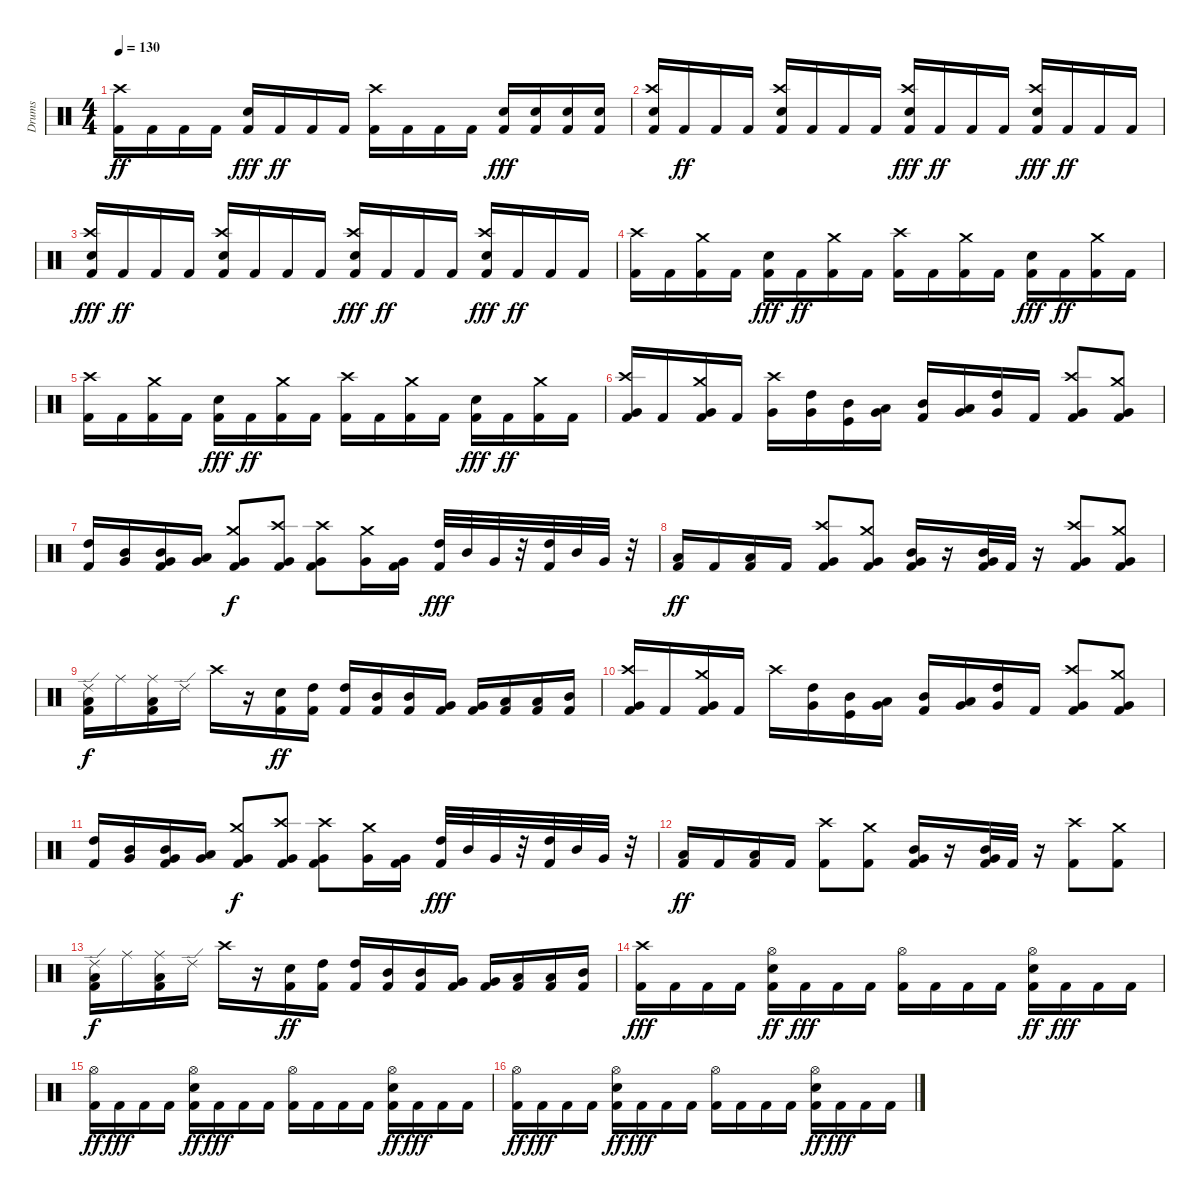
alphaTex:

\track ("Drums" "Drums") {instrument percussion}
\staff {score}
\articulation defaults
\ts (4 4)
\tempo 130
\clef neutral
\ks c
("Kick (hit) 2" "Crash high (hit)").16{dy ff} "Kick (hit) 2".16 "Kick (hit) 2".16 "Kick (hit) 2".16 ("Kick (hit) 2" "Snare (hit) 2").16{dy fff} "Kick (hit) 2".16{dy ff} "Kick (hit) 2".16 "Kick (hit) 2".16 ("Kick (hit) 2" "Crash high (hit)").16 "Kick (hit) 2".16 "Kick (hit) 2".16 "Kick (hit) 2".16 ("Kick (hit) 2" "Snare (hit) 2").16{dy fff} ("Kick (hit) 2" "Snare (hit) 2").16 ("Kick (hit) 2" "Snare (hit) 2").16 ("Kick (hit) 2" "Snare (hit) 2").16 |
("Kick (hit) 2" "Crash high (hit)" "Snare (hit) 2").16 "Kick (hit) 2".16{dy ff} "Kick (hit) 2".16 "Kick (hit) 2".16 ("Kick (hit) 2" "Snare (hit) 2" "Crash high (hit)").16 "Kick (hit) 2".16 "Kick (hit) 2".16 "Kick (hit) 2".16 ("Kick (hit) 2" "Snare (hit) 2" "Crash high (hit)").16{dy fff} "Kick (hit) 2".16{dy ff} "Kick (hit) 2".16 "Kick (hit) 2".16 ("Kick (hit) 2" "Snare (hit) 2" "Crash high (hit)").16{dy fff} "Kick (hit) 2".16{dy ff} "Kick (hit) 2".16 "Kick (hit) 2".16 |
("Kick (hit) 2" "Crash high (hit)" "Snare (hit) 2").16{dy fff} "Kick (hit) 2".16{dy ff} "Kick (hit) 2".16 "Kick (hit) 2".16 ("Kick (hit) 2" "Snare (hit) 2" "Crash high (hit)").16 "Kick (hit) 2".16 "Kick (hit) 2".16 "Kick (hit) 2".16 ("Kick (hit) 2" "Snare (hit) 2" "Crash high (hit)").16{dy fff} "Kick (hit) 2".16{dy ff} "Kick (hit) 2".16 "Kick (hit) 2".16 ("Kick (hit) 2" "Snare (hit) 2" "Crash high (hit)").16{dy fff} "Kick (hit) 2".16{dy ff} "Kick (hit) 2".16 "Kick (hit) 2".16 |
("Kick (hit) 2" "Crash high (hit)").16 "Kick (hit) 2".16 ("Kick (hit) 2" "Crash medium (hit)").16 "Kick (hit) 2".16 ("Kick (hit) 2" "Snare (hit) 2").16{dy fff} "Kick (hit) 2".16{dy ff} ("Kick (hit) 2" "Crash medium (hit)").16 "Kick (hit) 2".16 ("Kick (hit) 2" "Crash high (hit)").16 "Kick (hit) 2".16 ("Kick (hit) 2" "Crash medium (hit)").16 "Kick (hit) 2".16 ("Kick (hit) 2" "Snare (hit) 2").16{dy fff} "Kick (hit) 2".16{dy ff} ("Kick (hit) 2" "Crash medium (hit)").16 "Kick (hit) 2".16 |
("Kick (hit) 2" "Crash high (hit)").16 "Kick (hit) 2".16 ("Kick (hit) 2" "Crash medium (hit)").16 "Kick (hit) 2".16 ("Kick (hit) 2" "Snare (hit) 2").16{dy fff} "Kick (hit) 2".16{dy ff} ("Kick (hit) 2" "Crash medium (hit)").16 "Kick (hit) 2".16 ("Kick (hit) 2" "Crash high (hit)").16 "Kick (hit) 2".16 ("Kick (hit) 2" "Crash medium (hit)").16 "Kick (hit) 2".16 ("Kick (hit) 2" "Snare (hit) 2").16{dy fff} "Kick (hit) 2".16{dy ff} ("Kick (hit) 2" "Crash medium (hit)").16 "Kick (hit) 2".16 |
("Kick (hit) 2" "Crash high (hit)" "Very Low Tom (hit)").16 "Kick (hit) 2".16 ("Kick (hit) 2" "Crash medium (hit)" "Very Low Tom (hit)").16 "Kick (hit) 2".16 ("Crash high (hit)" "Very Low Tom (hit)").16 ("Very Low Tom (hit)" "High Tom (hit)").16 ("Kick (hit)" "Mid Tom (hit)").16 ("Very Low Tom (hit)" "Low Tom (hit)").16 ("Kick (hit) 2" "Mid Tom (hit)").16 ("Very Low Tom (hit)" "Low Tom (hit)").16 ("Very Low Tom (hit)" "High Tom (hit)").16 "Kick (hit) 2".16 ("Crash high (hit)" "Kick (hit) 2" "Very Low Tom (hit)").8 ("Crash medium (hit)" "Kick (hit) 2" "Very Low Tom (hit)").8 |
("Kick (hit) 2" "High Tom (hit)").16 ("Mid Tom (hit)" "Very Low Tom (hit)").16 ("Kick (hit) 2" "Mid Tom (hit)" "Very Low Tom (hit)").16 ("Low Tom (hit)" "Very Low Tom (hit)").16 ("Crash medium (hit)" "Kick (hit) 2" "Very Low Tom (hit)").8{dy f} ("Crash high (hit)" "Kick (hit) 2" "Very Low Tom (hit)").8 ("Crash high (hit)" "Kick (hit) 2" "Very Low Tom (hit)").8 ("Very Low Tom (hit)" "Crash medium (hit)").16 ("Kick (hit) 2" "Very Low Tom (hit)").16 ("High Tom (hit)" "Kick (hit) 2").32{dy fff} "Mid Tom (hit)".32 "Very Low Tom (hit)".32 r.32 ("High Tom (hit)" "Kick (hit) 2").32 "Mid Tom (hit)".32 "Very Low Tom (hit)".32 r.32 |
("Kick (hit) 2" "Low Tom (hit)").16{dy ff} "Kick (hit) 2".16 ("Kick (hit) 2" "Low Tom (hit)").16 "Kick (hit) 2".16 ("Crash high (hit)" "Kick (hit) 2" "Very Low Tom (hit)").8 ("Crash medium (hit)" "Kick (hit) 2" "Very Low Tom (hit)").8 ("Kick (hit) 2" "Very Low Tom (hit)" "Mid Tom (hit)").16 r.16 ("Kick (hit) 2" "Very Low Tom (hit)" "Mid Tom (hit)").32 "Kick (hit) 2".32 r.16 ("Crash high (hit)" "Kick (hit) 2" "Very Low Tom (hit)").8 ("Crash medium (hit)" "Kick (hit) 2" "Very Low Tom (hit)").8 |
("Ride (edge) 2" "Kick (hit) 2" "Low Tom (hit)").16{dy f} "Ride (middle)".16 ("Ride (middle)" "Kick (hit) 2" "Low Tom (hit)").16 "Ride (edge) 2".16 "Crash high (hit)".16 r.16 ("Snare (hit) 2" "Kick (hit) 2").16{dy ff} ("High Tom (hit)" "Kick (hit) 2").16 ("High Tom (hit)" "Kick (hit) 2").16 ("Mid Tom (hit)" "Kick (hit) 2").16 ("Mid Tom (hit)" "Kick (hit) 2").16 ("Very Low Tom (hit)" "Kick (hit) 2").16 ("Very Low Tom (hit)" "Kick (hit) 2").16 ("Low Tom (hit)" "Kick (hit) 2").16 ("Low Tom (hit)" "Kick (hit) 2").16 ("Mid Tom (hit)" "Kick (hit) 2").16 |
("Kick (hit) 2" "Crash high (hit)" "Very Low Tom (hit)").16 "Kick (hit) 2".16 ("Kick (hit) 2" "Crash medium (hit)" "Very Low Tom (hit)").16 "Kick (hit) 2".16 "Crash high (hit)".16 ("Very Low Tom (hit)" "High Tom (hit)").16 ("Kick (hit)" "Mid Tom (hit)").16 ("Very Low Tom (hit)" "Low Tom (hit)").16 ("Kick (hit) 2" "Mid Tom (hit)").16 ("Very Low Tom (hit)" "Low Tom (hit)").16 ("Very Low Tom (hit)" "High Tom (hit)").16 "Kick (hit) 2".16 ("Crash high (hit)" "Kick (hit) 2" "Very Low Tom (hit)").8 ("Crash medium (hit)" "Kick (hit) 2" "Very Low Tom (hit)").8 |
("Kick (hit) 2" "High Tom (hit)").16 ("Mid Tom (hit)" "Very Low Tom (hit)").16 ("Kick (hit) 2" "Mid Tom (hit)" "Very Low Tom (hit)").16 ("Low Tom (hit)" "Very Low Tom (hit)").16 ("Crash medium (hit)" "Kick (hit) 2" "Very Low Tom (hit)").8{dy f} ("Crash high (hit)" "Kick (hit) 2" "Very Low Tom (hit)").8 ("Crash high (hit)" "Kick (hit) 2" "Very Low Tom (hit)").8 ("Very Low Tom (hit)" "Crash medium (hit)").16 ("Kick (hit) 2" "Very Low Tom (hit)").16 ("High Tom (hit)" "Kick (hit) 2").32{dy fff} "Mid Tom (hit)".32 "Very Low Tom (hit)".32 r.32 ("High Tom (hit)" "Kick (hit) 2").32 "Mid Tom (hit)".32 "Very Low Tom (hit)".32 r.32 |
("Kick (hit) 2" "Low Tom (hit)").16{dy ff} "Kick (hit) 2".16 ("Kick (hit) 2" "Low Tom (hit)").16 "Kick (hit) 2".16 ("Crash high (hit)" "Kick (hit) 2").8 ("Crash medium (hit)" "Kick (hit) 2").8 ("Kick (hit) 2" "Very Low Tom (hit)" "Mid Tom (hit)").16 r.16 ("Kick (hit) 2" "Very Low Tom (hit)" "Mid Tom (hit)").32 "Kick (hit) 2".32 r.16 ("Crash high (hit)" "Kick (hit) 2").8 ("Crash medium (hit)" "Kick (hit) 2").8 |
("Ride (edge) 2" "Kick (hit) 2" "Low Tom (hit)").16{dy f} "Ride (middle)".16 ("Ride (middle)" "Kick (hit) 2" "Low Tom (hit)").16 "Ride (edge) 2".16 "Crash high (hit)".16 r.16 ("Snare (hit) 2" "Kick (hit) 2").16{dy ff} ("High Tom (hit)" "Kick (hit) 2").16 ("High Tom (hit)" "Kick (hit) 2").16 ("Mid Tom (hit)" "Kick (hit) 2").16 ("Mid Tom (hit)" "Kick (hit) 2").16 ("Very Low Tom (hit)" "Kick (hit) 2").16 ("Very Low Tom (hit)" "Kick (hit) 2").16 ("Low Tom (hit)" "Kick (hit) 2").16 ("Low Tom (hit)" "Kick (hit) 2").16 ("Mid Tom (hit)" "Kick (hit) 2").16 |
("Kick (hit) 2" "Crash high (hit)").16{dy fff} "Kick (hit) 2".16 "Kick (hit) 2".16 "Kick (hit) 2".16 ("Kick (hit) 2" "Hi-Hat (open)" "Snare (hit) 2").16{dy ff} "Kick (hit) 2".16{dy fff} "Kick (hit) 2".16 "Kick (hit) 2".16 ("Kick (hit) 2" "Hi-Hat (open)").16 "Kick (hit) 2".16 "Kick (hit) 2".16 "Kick (hit) 2".16 ("Kick (hit) 2" "Hi-Hat (open)" "Snare (hit) 2").16{dy ff} "Kick (hit) 2".16{dy fff} "Kick (hit) 2".16 "Kick (hit) 2".16 |
("Kick (hit) 2" "Hi-Hat (open)").16{dy ff} "Kick (hit) 2".16{dy fff} "Kick (hit) 2".16 "Kick (hit) 2".16 ("Kick (hit) 2" "Hi-Hat (open)" "Snare (hit) 2").16{dy ff} "Kick (hit) 2".16{dy fff} "Kick (hit) 2".16 "Kick (hit) 2".16 ("Kick (hit) 2" "Hi-Hat (open)").16 "Kick (hit) 2".16 "Kick (hit) 2".16 "Kick (hit) 2".16 ("Kick (hit) 2" "Hi-Hat (open)" "Snare (hit) 2").16{dy ff} "Kick (hit) 2".16{dy fff} "Kick (hit) 2".16 "Kick (hit) 2".16 |
("Kick (hit) 2" "Hi-Hat (open)").16{dy ff} "Kick (hit) 2".16{dy fff} "Kick (hit) 2".16 "Kick (hit) 2".16 ("Kick (hit) 2" "Hi-Hat (open)" "Snare (hit) 2").16{dy ff} "Kick (hit) 2".16{dy fff} "Kick (hit) 2".16 "Kick (hit) 2".16 ("Kick (hit) 2" "Hi-Hat (open)").16 "Kick (hit) 2".16 "Kick (hit) 2".16 "Kick (hit) 2".16 ("Kick (hit) 2" "Hi-Hat (open)" "Snare (hit) 2").16{dy ff} "Kick (hit) 2".16{dy fff} "Kick (hit) 2".16 "Kick (hit) 2".16
